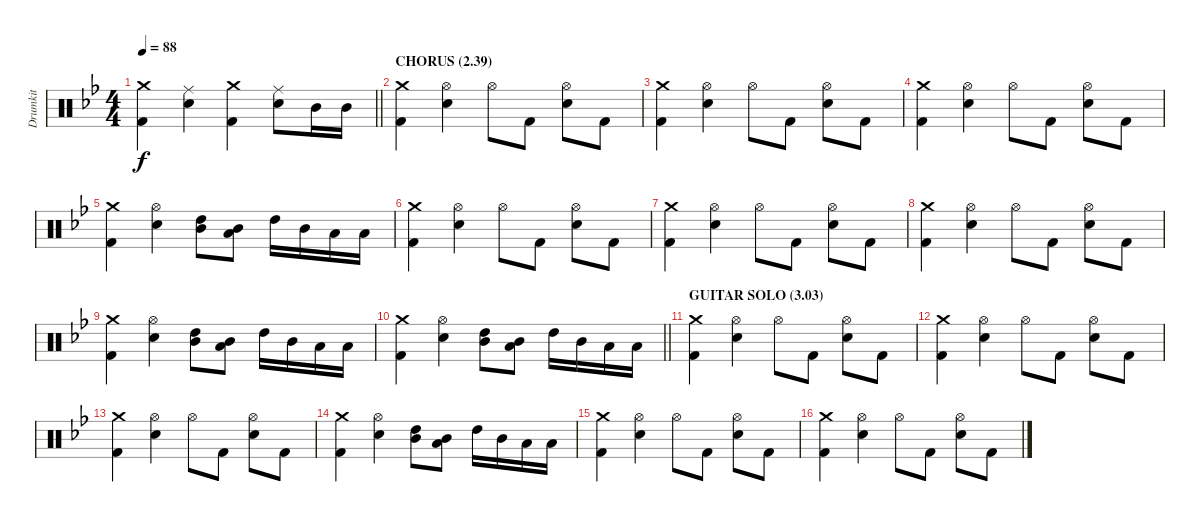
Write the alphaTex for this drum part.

\track ("Drumkit" "Drumkit") {instrument percussion}
\staff {score}
\articulation defaults
\ts (4 4)
\tempo 88
\clef neutral
\barLineRight lightlight
\ks bb
("Kick (hit) 2" "Crash medium (hit)").4{dy f} ("Snare (hit) 2" "Ride (middle)").4 ("Kick (hit) 2" "Crash medium (hit)").4 ("Snare (hit) 2" "Ride (middle)").8 "Mid Tom (hit)".16 "Mid Tom (hit)".16 |
\section ("" "CHORUS (2.39)")
("Kick (hit) 2" "Crash medium (hit)").4 ("Snare (hit) 2" "Hi-Hat (open)").4 "Hi-Hat (open)".8 "Kick (hit) 2".8 ("Snare (hit) 2" "Hi-Hat (open)").8 "Kick (hit) 2".8 |
("Kick (hit) 2" "Crash medium (hit)").4 ("Snare (hit) 2" "Hi-Hat (open)").4 "Hi-Hat (open)".8 "Kick (hit) 2".8 ("Snare (hit) 2" "Hi-Hat (open)").8 "Kick (hit) 2".8 |
("Kick (hit) 2" "Crash medium (hit)").4 ("Snare (hit) 2" "Hi-Hat (open)").4 "Hi-Hat (open)".8 "Kick (hit) 2".8 ("Snare (hit) 2" "Hi-Hat (open)").8 "Kick (hit) 2".8 |
("Kick (hit) 2" "Crash medium (hit)").4 ("Snare (hit) 2" "Hi-Hat (open)").4 ("High Tom (hit)" "Mid Tom (hit)").8 ("Mid Tom (hit)" "Low Tom (hit)").8 "High Tom (hit)".16 "Mid Tom (hit)".16 "Low Tom (hit)".16 "Low Tom (hit)".16 |
("Kick (hit) 2" "Crash medium (hit)").4 ("Snare (hit) 2" "Hi-Hat (open)").4 "Hi-Hat (open)".8 "Kick (hit) 2".8 ("Snare (hit) 2" "Hi-Hat (open)").8 "Kick (hit) 2".8 |
("Kick (hit) 2" "Crash medium (hit)").4 ("Snare (hit) 2" "Hi-Hat (open)").4 "Hi-Hat (open)".8 "Kick (hit) 2".8 ("Snare (hit) 2" "Hi-Hat (open)").8 "Kick (hit) 2".8 |
("Kick (hit) 2" "Crash medium (hit)").4 ("Snare (hit) 2" "Hi-Hat (open)").4 "Hi-Hat (open)".8 "Kick (hit) 2".8 ("Snare (hit) 2" "Hi-Hat (open)").8 "Kick (hit) 2".8 |
("Kick (hit) 2" "Crash medium (hit)").4 ("Snare (hit) 2" "Hi-Hat (open)").4 ("High Tom (hit)" "Mid Tom (hit)").8 ("Mid Tom (hit)" "Low Tom (hit)").8 "High Tom (hit)".16 "Mid Tom (hit)".16 "Low Tom (hit)".16 "Low Tom (hit)".16 |
\barLineRight lightlight
("Kick (hit) 2" "Crash medium (hit)").4 ("Snare (hit) 2" "Hi-Hat (open)").4 ("High Tom (hit)" "Mid Tom (hit)").8 ("Mid Tom (hit)" "Low Tom (hit)").8 "High Tom (hit)".16 "Mid Tom (hit)".16 "Low Tom (hit)".16 "Low Tom (hit)".16 |
\section ("" "GUITAR SOLO (3.03)")
("Kick (hit) 2" "Crash medium (hit)").4 ("Snare (hit) 2" "Hi-Hat (open)").4 "Hi-Hat (open)".8 "Kick (hit) 2".8 ("Snare (hit) 2" "Hi-Hat (open)").8 "Kick (hit) 2".8 |
("Kick (hit) 2" "Crash medium (hit)").4 ("Snare (hit) 2" "Hi-Hat (open)").4 "Hi-Hat (open)".8 "Kick (hit) 2".8 ("Snare (hit) 2" "Hi-Hat (open)").8 "Kick (hit) 2".8 |
("Kick (hit) 2" "Crash medium (hit)").4 ("Snare (hit) 2" "Hi-Hat (open)").4 "Hi-Hat (open)".8 "Kick (hit) 2".8 ("Snare (hit) 2" "Hi-Hat (open)").8 "Kick (hit) 2".8 |
("Kick (hit) 2" "Crash medium (hit)").4 ("Snare (hit) 2" "Hi-Hat (open)").4 ("High Tom (hit)" "Mid Tom (hit)").8 ("Mid Tom (hit)" "Low Tom (hit)").8 "High Tom (hit)".16 "Mid Tom (hit)".16 "Low Tom (hit)".16 "Low Tom (hit)".16 |
("Kick (hit) 2" "Crash medium (hit)").4 ("Snare (hit) 2" "Hi-Hat (open)").4 "Hi-Hat (open)".8 "Kick (hit) 2".8 ("Snare (hit) 2" "Hi-Hat (open)").8 "Kick (hit) 2".8 |
("Kick (hit) 2" "Crash medium (hit)").4 ("Snare (hit) 2" "Hi-Hat (open)").4 "Hi-Hat (open)".8 "Kick (hit) 2".8 ("Snare (hit) 2" "Hi-Hat (open)").8 "Kick (hit) 2".8
